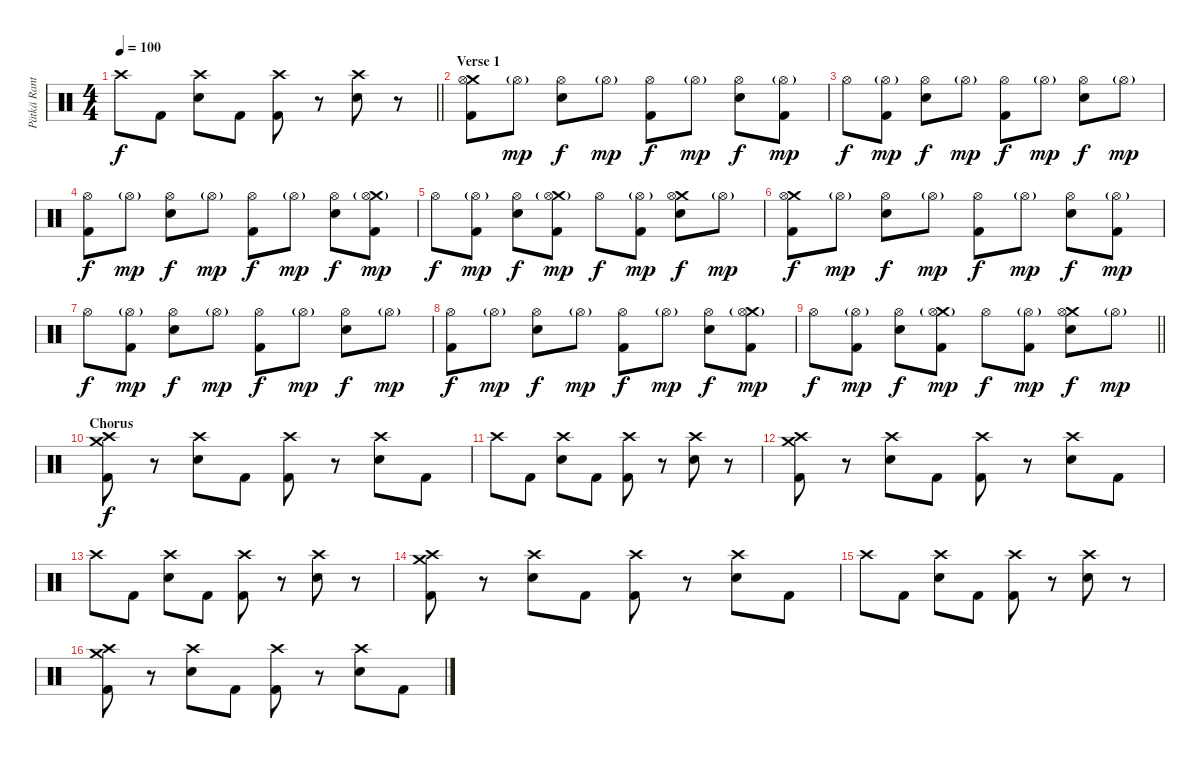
\track ("Pätkä Rantala (Drums)" "Pätkä Rant") {instrument percussion}
\staff {score}
\articulation defaults
\ts (4 4)
\tempo 100
\clef neutral
\barLineRight lightlight
\ks c "Crash high (hit)".8{dy f} "Kick (hit) 2".8
("Crash high (hit)" "Snare (hit) 2").8 "Kick (hit) 2".8 ("Crash high (hit)" "Kick (hit) 2").8 r.8 ("Crash high (hit)" "Snare (hit) 2").8 r.8 |
\section ("" "Verse 1")
("Crash medium (hit)" "Hi-Hat (open)" "Kick (hit) 2").8 "Hi-Hat (open)"{g}.8{dy mp} ("Hi-Hat (open)" "Snare (hit) 2").8{dy f} "Hi-Hat (open)"{g}.8{dy mp} ("Hi-Hat (open)" "Kick (hit) 2").8{dy f} "Hi-Hat (open)"{g}.8{dy mp} ("Hi-Hat (open)" "Snare (hit) 2").8{dy f} ("Hi-Hat (open)"{g} "Kick (hit) 2").8{dy mp} |
"Hi-Hat (open)".8{dy f} ("Hi-Hat (open)"{g} "Kick (hit) 2").8{dy mp} ("Hi-Hat (open)" "Snare (hit) 2").8{dy f} "Hi-Hat (open)"{g}.8{dy mp} ("Hi-Hat (open)" "Kick (hit) 2").8{dy f} "Hi-Hat (open)"{g}.8{dy mp} ("Hi-Hat (open)" "Snare (hit) 2").8{dy f} "Hi-Hat (open)"{g}.8{dy mp} |
("Hi-Hat (open)" "Kick (hit) 2").8{dy f} "Hi-Hat (open)"{g}.8{dy mp} ("Hi-Hat (open)" "Snare (hit) 2").8{dy f} "Hi-Hat (open)"{g}.8{dy mp} ("Hi-Hat (open)" "Kick (hit) 2").8{dy f} "Hi-Hat (open)"{g}.8{dy mp} ("Hi-Hat (open)" "Snare (hit) 2").8{dy f} ("Crash medium (hit)" "Hi-Hat (open)"{g} "Kick (hit) 2").8{dy mp} |
"Hi-Hat (open)".8{dy f} ("Hi-Hat (open)"{g} "Kick (hit) 2").8{dy mp} ("Hi-Hat (open)" "Snare (hit) 2").8{dy f} ("Crash medium (hit)" "Hi-Hat (open)"{g} "Kick (hit) 2").8{dy mp} "Hi-Hat (open)".8{dy f} ("Hi-Hat (open)"{g} "Kick (hit) 2").8{dy mp} ("Crash medium (hit)" "Hi-Hat (open)" "Snare (hit) 2").8{dy f} "Hi-Hat (open)"{g}.8{dy mp} |
("Crash medium (hit)" "Hi-Hat (open)" "Kick (hit) 2").8{dy f} "Hi-Hat (open)"{g}.8{dy mp} ("Hi-Hat (open)" "Snare (hit) 2").8{dy f} "Hi-Hat (open)"{g}.8{dy mp} ("Hi-Hat (open)" "Kick (hit) 2").8{dy f} "Hi-Hat (open)"{g}.8{dy mp} ("Hi-Hat (open)" "Snare (hit) 2").8{dy f} ("Hi-Hat (open)"{g} "Kick (hit) 2").8{dy mp} |
"Hi-Hat (open)".8{dy f} ("Hi-Hat (open)"{g} "Kick (hit) 2").8{dy mp} ("Hi-Hat (open)" "Snare (hit) 2").8{dy f} "Hi-Hat (open)"{g}.8{dy mp} ("Hi-Hat (open)" "Kick (hit) 2").8{dy f} "Hi-Hat (open)"{g}.8{dy mp} ("Hi-Hat (open)" "Snare (hit) 2").8{dy f} "Hi-Hat (open)"{g}.8{dy mp} |
("Hi-Hat (open)" "Kick (hit) 2").8{dy f} "Hi-Hat (open)"{g}.8{dy mp} ("Hi-Hat (open)" "Snare (hit) 2").8{dy f} "Hi-Hat (open)"{g}.8{dy mp} ("Hi-Hat (open)" "Kick (hit) 2").8{dy f} "Hi-Hat (open)"{g}.8{dy mp} ("Hi-Hat (open)" "Snare (hit) 2").8{dy f} ("Crash medium (hit)" "Hi-Hat (open)"{g} "Kick (hit) 2").8{dy mp} |
\barLineRight lightlight "Hi-Hat (open)".8{dy f}
("Hi-Hat (open)"{g} "Kick (hit) 2").8{dy mp} ("Hi-Hat (open)" "Snare (hit) 2").8{dy f} ("Crash medium (hit)" "Hi-Hat (open)"{g} "Kick (hit) 2").8{dy mp} "Hi-Hat (open)".8{dy f} ("Hi-Hat (open)"{g} "Kick (hit) 2").8{dy mp} ("Crash medium (hit)" "Hi-Hat (open)" "Snare (hit) 2").8{dy f} "Hi-Hat (open)"{g}.8{dy mp} |
\section ("" "Chorus")
("Crash medium (hit)" "Crash high (hit)" "Kick (hit) 2").8{dy f} r.8 ("Crash high (hit)" "Snare (hit) 2").8 "Kick (hit) 2".8 ("Crash high (hit)" "Kick (hit) 2").8 r.8 ("Crash high (hit)" "Snare (hit) 2").8 "Kick (hit) 2".8 |
"Crash high (hit)".8 "Kick (hit) 2".8 ("Crash high (hit)" "Snare (hit) 2").8 "Kick (hit) 2".8 ("Crash high (hit)" "Kick (hit) 2").8 r.8 ("Crash high (hit)" "Snare (hit) 2").8 r.8 |
("Crash medium (hit)" "Crash high (hit)" "Kick (hit) 2").8 r.8 ("Crash high (hit)" "Snare (hit) 2").8 "Kick (hit) 2".8 ("Crash high (hit)" "Kick (hit) 2").8 r.8 ("Crash high (hit)" "Snare (hit) 2").8 "Kick (hit) 2".8 |
"Crash high (hit)".8 "Kick (hit) 2".8 ("Crash high (hit)" "Snare (hit) 2").8 "Kick (hit) 2".8 ("Crash high (hit)" "Kick (hit) 2").8 r.8 ("Crash high (hit)" "Snare (hit) 2").8 r.8 |
("Crash medium (hit)" "Crash high (hit)" "Kick (hit) 2").8 r.8 ("Crash high (hit)" "Snare (hit) 2").8 "Kick (hit) 2".8 ("Crash high (hit)" "Kick (hit) 2").8 r.8 ("Crash high (hit)" "Snare (hit) 2").8 "Kick (hit) 2".8 |
"Crash high (hit)".8 "Kick (hit) 2".8 ("Crash high (hit)" "Snare (hit) 2").8 "Kick (hit) 2".8 ("Crash high (hit)" "Kick (hit) 2").8 r.8 ("Crash high (hit)" "Snare (hit) 2").8 r.8 |
("Crash medium (hit)" "Crash high (hit)" "Kick (hit) 2").8 r.8 ("Crash high (hit)" "Snare (hit) 2").8 "Kick (hit) 2".8 ("Crash high (hit)" "Kick (hit) 2").8 r.8 ("Crash high (hit)" "Snare (hit) 2").8 "Kick (hit) 2".8
